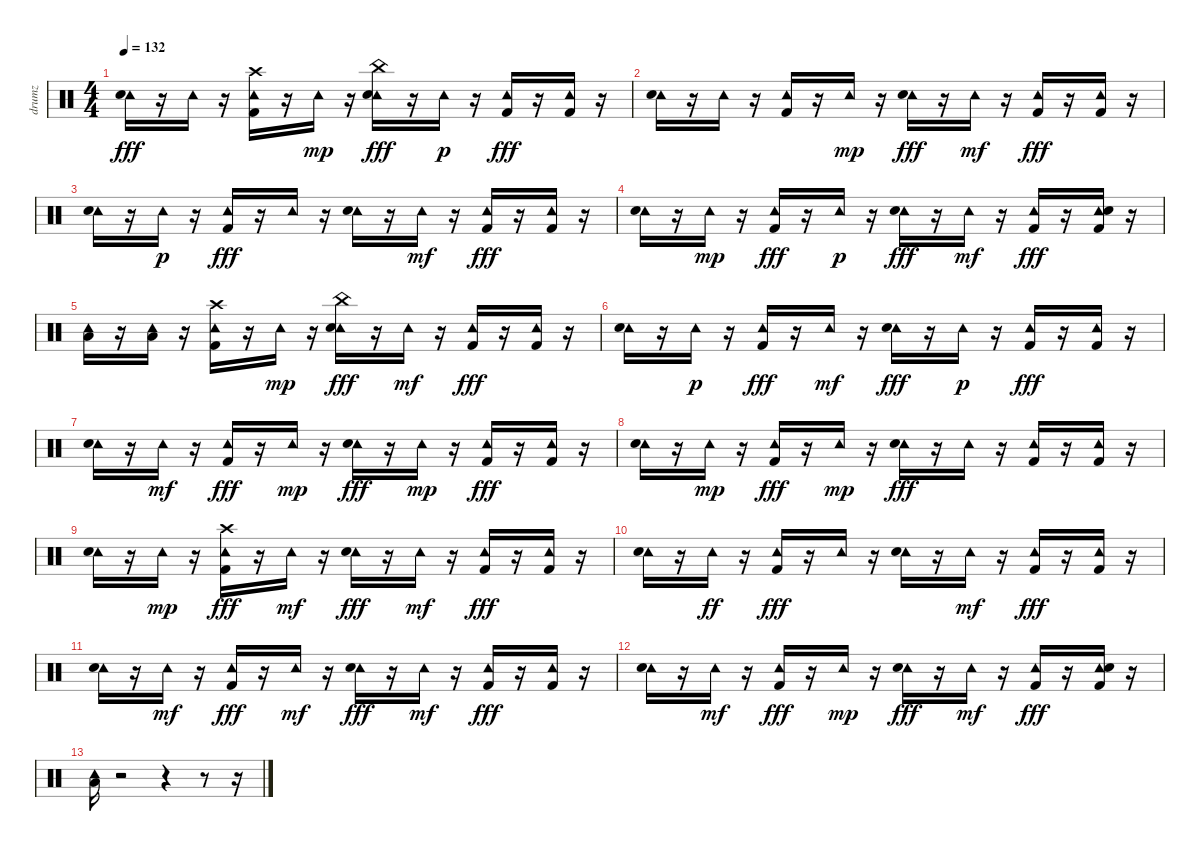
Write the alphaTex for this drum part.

\track ("drumz" "drumz") {instrument percussion}
\staff {score}
\articulation defaults
\ts (4 4)
\tempo 132
\clef neutral
\ks c
("Tambourine (hit)" "Snare (hit) 2").16{dy fff} r.16 "Tambourine (hit)".16 r.16 ("Tambourine (hit)" "Kick (hit) 2" "Crash high (hit)").16 r.16 "Tambourine (hit)".16{dy mp} r.16 ("Tambourine (hit)" "Snare (hit) 2" "China (hit)").16{dy fff} r.16 "Tambourine (hit)".16{dy p} r.16 ("Tambourine (hit)" "Kick (hit) 2").16{dy fff} r.16 ("Tambourine (hit)" "Kick (hit) 2").16 r.16 |
("Tambourine (hit)" "Snare (hit) 2").16 r.16 "Tambourine (hit)".16 r.16 ("Tambourine (hit)" "Kick (hit) 2").16 r.16 "Tambourine (hit)".16{dy mp} r.16 ("Tambourine (hit)" "Snare (hit) 2").16{dy fff} r.16 "Tambourine (hit)".16{dy mf} r.16 ("Tambourine (hit)" "Kick (hit) 2").16{dy fff} r.16 ("Tambourine (hit)" "Kick (hit) 2").16 r.16 |
("Tambourine (hit)" "Snare (hit) 2").16 r.16 "Tambourine (hit)".16{dy p} r.16 ("Tambourine (hit)" "Kick (hit) 2").16{dy fff} r.16 "Tambourine (hit)".16{volume 15} r.16 ("Tambourine (hit)" "Snare (hit) 2").16 r.16 "Tambourine (hit)".16{dy mf} r.16 ("Tambourine (hit)" "Kick (hit) 2").16{dy fff} r.16 ("Tambourine (hit)" "Kick (hit) 2").16{volume 14} r.16 |
("Tambourine (hit)" "Snare (hit) 2").16 r.16 "Tambourine (hit)".16{dy mp} r.16 ("Tambourine (hit)" "Kick (hit) 2").16{dy fff} r.16 "Tambourine (hit)".16{dy p} r.16 ("Tambourine (hit)" "Snare (hit) 2").16{dy fff volume 13} r.16 "Tambourine (hit)".16{dy mf} r.16 ("Tambourine (hit)" "Kick (hit) 2").16{dy fff} r.16 ("Tambourine (hit)" "Snare (hit) 2" "Kick (hit) 2").16 r.16 |
("Tambourine (hit)" "Low Tom (hit)").16{volume 12} r.16 ("Tambourine (hit)" "Low Floor Tom (hit)").16 r.16 ("Tambourine (hit)" "Crash high (hit)" "Kick (hit) 2").16 r.16 "Tambourine (hit)".16{dy mp} r.16 ("Tambourine (hit)" "China (hit)" "Snare (hit) 2").16{dy fff} r.16 "Tambourine (hit)".16{dy mf volume 11} r.16 ("Tambourine (hit)" "Kick (hit) 2").16{dy fff} r.16 ("Tambourine (hit)" "Kick (hit) 2").16 r.16 |
("Tambourine (hit)" "Snare (hit) 2").16 r.16 "Tambourine (hit)".16{dy p} r.16 ("Tambourine (hit)" "Kick (hit) 2").16{dy fff volume 10} r.16 "Tambourine (hit)".16{dy mf} r.16 ("Tambourine (hit)" "Snare (hit) 2").16{dy fff} r.16 "Tambourine (hit)".16{dy p} r.16 ("Tambourine (hit)" "Kick (hit) 2").16{dy fff} r.16 ("Tambourine (hit)" "Kick (hit) 2").16{volume 9} r.16 |
("Tambourine (hit)" "Snare (hit) 2").16 r.16 "Tambourine (hit)".16{dy mf} r.16 ("Tambourine (hit)" "Kick (hit) 2").16{dy fff} r.16 "Tambourine (hit)".16{dy mp volume 8} r.16 ("Tambourine (hit)" "Snare (hit) 2").16{dy fff} r.16 "Tambourine (hit)".16{dy mp} r.16 ("Tambourine (hit)" "Kick (hit) 2").16{dy fff} r.16 ("Tambourine (hit)" "Kick (hit) 2").16 r.16 |
("Tambourine (hit)" "Snare (hit) 2").16 r.16 "Tambourine (hit)".16{dy mp volume 7} r.16 ("Tambourine (hit)" "Kick (hit) 2").16{dy fff} r.16 "Tambourine (hit)".16{dy mp} r.16 ("Tambourine (hit)" "Snare (hit) 2").16{dy fff} r.16 "Tambourine (hit)".16{volume 6} r.16 ("Tambourine (hit)" "Kick (hit) 2").16 r.16 ("Tambourine (hit)" "Kick (hit) 2").16 r.16 |
("Tambourine (hit)" "Snare (hit) 2").16 r.16 "Tambourine (hit)".16{dy mp} r.16 ("Tambourine (hit)" "Kick (hit) 2" "Crash high (hit)").16{dy fff volume 5} r.16 "Tambourine (hit)".16{dy mf} r.16 ("Tambourine (hit)" "Snare (hit) 2").16{dy fff} r.16 "Tambourine (hit)".16{dy mf} r.16 ("Tambourine (hit)" "Kick (hit) 2").16{dy fff volume 4} r.16 ("Tambourine (hit)" "Kick (hit) 2").16 r.16 |
("Tambourine (hit)" "Snare (hit) 2").16 r.16 "Tambourine (hit)".16{dy ff} r.16 ("Tambourine (hit)" "Kick (hit) 2").16{dy fff} r.16 "Tambourine (hit)".16 r.16 ("Tambourine (hit)" "Snare (hit) 2").16{volume 3} r.16 "Tambourine (hit)".16{dy mf} r.16 ("Tambourine (hit)" "Kick (hit) 2").16{dy fff} r.16 ("Tambourine (hit)" "Kick (hit) 2").16 r.16 |
("Tambourine (hit)" "Snare (hit) 2").16{volume 2} r.16 "Tambourine (hit)".16{dy mf} r.16 ("Tambourine (hit)" "Kick (hit) 2").16{dy fff} r.16 "Tambourine (hit)".16{dy mf} r.16 ("Tambourine (hit)" "Snare (hit) 2").16{dy fff} r.16 "Tambourine (hit)".16{dy mf volume 1} r.16 ("Tambourine (hit)" "Kick (hit) 2").16{dy fff} r.16 ("Tambourine (hit)" "Kick (hit) 2").16 r.16 |
("Tambourine (hit)" "Snare (hit) 2").16 r.16 "Tambourine (hit)".16{dy mf} r.16 ("Tambourine (hit)" "Kick (hit) 2").16{dy fff} r.16 "Tambourine (hit)".16{dy mp} r.16 ("Tambourine (hit)" "Snare (hit) 2").16{dy fff volume 0} r.16 "Tambourine (hit)".16{dy mf} r.16 ("Tambourine (hit)" "Kick (hit) 2").16{dy fff} r.16 ("Tambourine (hit)" "Snare (hit) 2" "Kick (hit) 2").16 r.16 |
("Tambourine (hit)" "Low Tom (hit)").16 r.2 r.4 r.8 r.16
